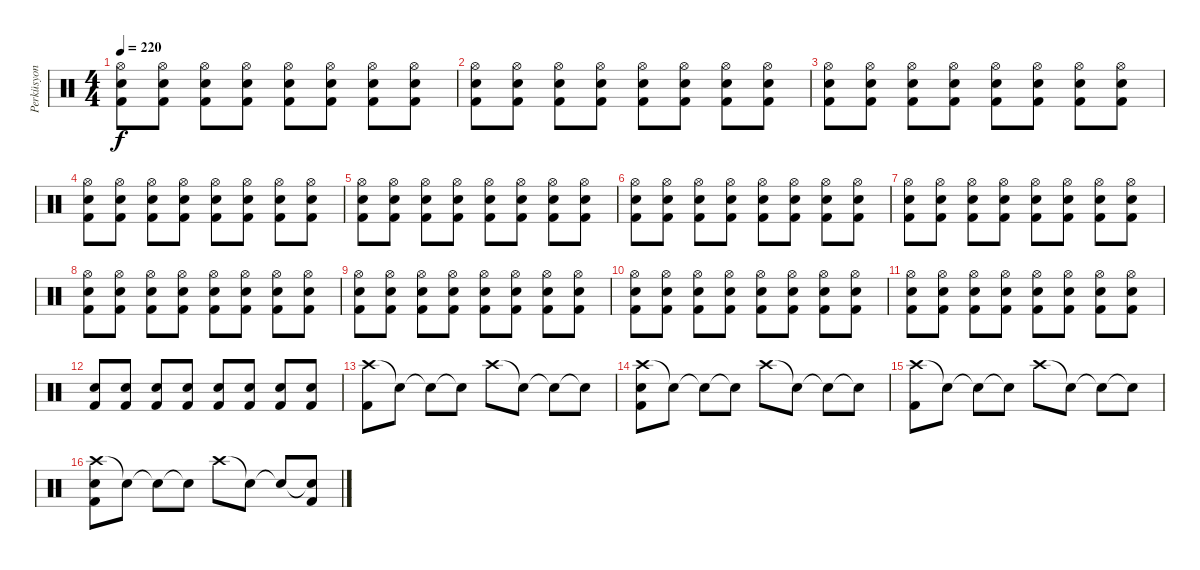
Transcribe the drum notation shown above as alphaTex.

\track ("Perküsyon" "Perküsyon") {instrument percussion}
\staff {score}
\articulation defaults
\ts (4 4)
\tempo 220
\clef neutral
\ks c
("Hi-Hat (open)" "Electric Snare (hit)" "Kick (hit) 2").8{dy f} ("Hi-Hat (open)" "Electric Snare (hit)" "Kick (hit) 2").8 ("Hi-Hat (open)" "Electric Snare (hit)" "Kick (hit) 2").8 ("Hi-Hat (open)" "Electric Snare (hit)" "Kick (hit) 2").8 ("Hi-Hat (open)" "Electric Snare (hit)" "Kick (hit) 2").8 ("Hi-Hat (open)" "Electric Snare (hit)" "Kick (hit) 2").8 ("Hi-Hat (open)" "Electric Snare (hit)" "Kick (hit) 2").8 ("Hi-Hat (open)" "Electric Snare (hit)" "Kick (hit) 2").8 |
("Hi-Hat (open)" "Electric Snare (hit)" "Kick (hit) 2").8 ("Hi-Hat (open)" "Electric Snare (hit)" "Kick (hit) 2").8 ("Hi-Hat (open)" "Electric Snare (hit)" "Kick (hit) 2").8 ("Hi-Hat (open)" "Electric Snare (hit)" "Kick (hit) 2").8 ("Hi-Hat (open)" "Electric Snare (hit)" "Kick (hit) 2").8 ("Hi-Hat (open)" "Electric Snare (hit)" "Kick (hit) 2").8 ("Hi-Hat (open)" "Electric Snare (hit)" "Kick (hit) 2").8 ("Hi-Hat (open)" "Electric Snare (hit)" "Kick (hit) 2").8 |
("Hi-Hat (open)" "Electric Snare (hit)" "Kick (hit) 2").8 ("Hi-Hat (open)" "Electric Snare (hit)" "Kick (hit) 2").8 ("Hi-Hat (open)" "Electric Snare (hit)" "Kick (hit) 2").8 ("Hi-Hat (open)" "Electric Snare (hit)" "Kick (hit) 2").8 ("Hi-Hat (open)" "Electric Snare (hit)" "Kick (hit) 2").8 ("Hi-Hat (open)" "Electric Snare (hit)" "Kick (hit) 2").8 ("Hi-Hat (open)" "Electric Snare (hit)" "Kick (hit) 2").8 ("Hi-Hat (open)" "Electric Snare (hit)" "Kick (hit) 2").8 |
("Hi-Hat (open)" "Electric Snare (hit)" "Kick (hit) 2").8 ("Hi-Hat (open)" "Electric Snare (hit)" "Kick (hit) 2").8 ("Hi-Hat (open)" "Electric Snare (hit)" "Kick (hit) 2").8 ("Hi-Hat (open)" "Electric Snare (hit)" "Kick (hit) 2").8 ("Hi-Hat (open)" "Electric Snare (hit)" "Kick (hit) 2").8 ("Hi-Hat (open)" "Electric Snare (hit)" "Kick (hit) 2").8 ("Hi-Hat (open)" "Electric Snare (hit)" "Kick (hit) 2").8 ("Hi-Hat (open)" "Electric Snare (hit)" "Kick (hit) 2").8 |
("Hi-Hat (open)" "Electric Snare (hit)" "Kick (hit) 2").8 ("Hi-Hat (open)" "Electric Snare (hit)" "Kick (hit) 2").8 ("Hi-Hat (open)" "Electric Snare (hit)" "Kick (hit) 2").8 ("Hi-Hat (open)" "Electric Snare (hit)" "Kick (hit) 2").8 ("Hi-Hat (open)" "Electric Snare (hit)" "Kick (hit) 2").8 ("Hi-Hat (open)" "Electric Snare (hit)" "Kick (hit) 2").8 ("Hi-Hat (open)" "Electric Snare (hit)" "Kick (hit) 2").8 ("Hi-Hat (open)" "Electric Snare (hit)" "Kick (hit) 2").8 |
("Hi-Hat (open)" "Electric Snare (hit)" "Kick (hit) 2").8 ("Hi-Hat (open)" "Electric Snare (hit)" "Kick (hit) 2").8 ("Hi-Hat (open)" "Electric Snare (hit)" "Kick (hit) 2").8 ("Hi-Hat (open)" "Electric Snare (hit)" "Kick (hit) 2").8 ("Hi-Hat (open)" "Electric Snare (hit)" "Kick (hit) 2").8 ("Hi-Hat (open)" "Electric Snare (hit)" "Kick (hit) 2").8 ("Hi-Hat (open)" "Electric Snare (hit)" "Kick (hit) 2").8 ("Hi-Hat (open)" "Electric Snare (hit)" "Kick (hit) 2").8 |
("Hi-Hat (open)" "Electric Snare (hit)" "Kick (hit) 2").8 ("Hi-Hat (open)" "Electric Snare (hit)" "Kick (hit) 2").8 ("Hi-Hat (open)" "Electric Snare (hit)" "Kick (hit) 2").8 ("Hi-Hat (open)" "Electric Snare (hit)" "Kick (hit) 2").8 ("Hi-Hat (open)" "Electric Snare (hit)" "Kick (hit) 2").8 ("Hi-Hat (open)" "Electric Snare (hit)" "Kick (hit) 2").8 ("Hi-Hat (open)" "Electric Snare (hit)" "Kick (hit) 2").8 ("Hi-Hat (open)" "Electric Snare (hit)" "Kick (hit) 2").8 |
("Hi-Hat (open)" "Electric Snare (hit)" "Kick (hit) 2").8 ("Hi-Hat (open)" "Electric Snare (hit)" "Kick (hit) 2").8 ("Hi-Hat (open)" "Electric Snare (hit)" "Kick (hit) 2").8 ("Hi-Hat (open)" "Electric Snare (hit)" "Kick (hit) 2").8 ("Hi-Hat (open)" "Electric Snare (hit)" "Kick (hit) 2").8 ("Hi-Hat (open)" "Electric Snare (hit)" "Kick (hit) 2").8 ("Hi-Hat (open)" "Electric Snare (hit)" "Kick (hit) 2").8 ("Hi-Hat (open)" "Electric Snare (hit)" "Kick (hit) 2").8 |
("Hi-Hat (open)" "Electric Snare (hit)" "Kick (hit) 2").8 ("Hi-Hat (open)" "Electric Snare (hit)" "Kick (hit) 2").8 ("Hi-Hat (open)" "Electric Snare (hit)" "Kick (hit) 2").8 ("Hi-Hat (open)" "Electric Snare (hit)" "Kick (hit) 2").8 ("Hi-Hat (open)" "Electric Snare (hit)" "Kick (hit) 2").8 ("Hi-Hat (open)" "Electric Snare (hit)" "Kick (hit) 2").8 ("Hi-Hat (open)" "Electric Snare (hit)" "Kick (hit) 2").8 ("Hi-Hat (open)" "Electric Snare (hit)" "Kick (hit) 2").8 |
("Hi-Hat (open)" "Electric Snare (hit)" "Kick (hit) 2").8 ("Hi-Hat (open)" "Electric Snare (hit)" "Kick (hit) 2").8 ("Hi-Hat (open)" "Electric Snare (hit)" "Kick (hit) 2").8 ("Hi-Hat (open)" "Electric Snare (hit)" "Kick (hit) 2").8 ("Hi-Hat (open)" "Electric Snare (hit)" "Kick (hit) 2").8 ("Hi-Hat (open)" "Electric Snare (hit)" "Kick (hit) 2").8 ("Hi-Hat (open)" "Electric Snare (hit)" "Kick (hit) 2").8 ("Hi-Hat (open)" "Electric Snare (hit)" "Kick (hit) 2").8 |
("Hi-Hat (open)" "Electric Snare (hit)" "Kick (hit) 2").8 ("Hi-Hat (open)" "Electric Snare (hit)" "Kick (hit) 2").8 ("Hi-Hat (open)" "Electric Snare (hit)" "Kick (hit) 2").8 ("Hi-Hat (open)" "Electric Snare (hit)" "Kick (hit) 2").8 ("Hi-Hat (open)" "Electric Snare (hit)" "Kick (hit) 2").8 ("Hi-Hat (open)" "Electric Snare (hit)" "Kick (hit) 2").8 ("Hi-Hat (open)" "Electric Snare (hit)" "Kick (hit) 2").8 ("Hi-Hat (open)" "Electric Snare (hit)" "Kick (hit) 2").8 |
("Electric Snare (hit)" "Kick (hit) 2").8 ("Electric Snare (hit)" "Kick (hit) 2").8 ("Electric Snare (hit)" "Kick (hit) 2").8 ("Electric Snare (hit)" "Kick (hit) 2").8 ("Electric Snare (hit)" "Kick (hit) 2").8 ("Electric Snare (hit)" "Kick (hit) 2").8 ("Electric Snare (hit)" "Kick (hit) 2").8 ("Electric Snare (hit)" "Kick (hit) 2").8 |
("Crash high (hit)" "Kick (hit) 2").8 "Snare (hit)"{t}.8 "Snare (hit)"{t}.8 "Snare (hit)"{t}.8 "Crash high (hit)".8 "Snare (hit)"{t}.8 "Snare (hit)"{t}.8 "Snare (hit)"{t}.8 |
("Crash high (hit)" "Electric Snare (hit)" "Kick (hit) 2").8 "Snare (hit)"{t}.8 "Snare (hit)"{t}.8 "Snare (hit)"{t}.8 "Crash high (hit)".8 "Snare (hit)"{t}.8 "Snare (hit)"{t}.8 "Snare (hit)"{t}.8 |
("Crash high (hit)" "Kick (hit) 2").8 "Snare (hit)"{t}.8 "Snare (hit)"{t}.8 "Snare (hit)"{t}.8 "Crash high (hit)".8 "Snare (hit)"{t}.8 "Snare (hit)"{t}.8 "Snare (hit)"{t}.8 |
("Crash high (hit)" "Electric Snare (hit)" "Kick (hit) 2").8 "Snare (hit)"{t}.8 "Snare (hit)"{t}.8 "Snare (hit)"{t}.8 "Crash high (hit)".8 "Snare (hit)"{t}.8 "Snare (hit)"{t}.8 ("Snare (hit)"{t} "Kick (hit) 2").8
